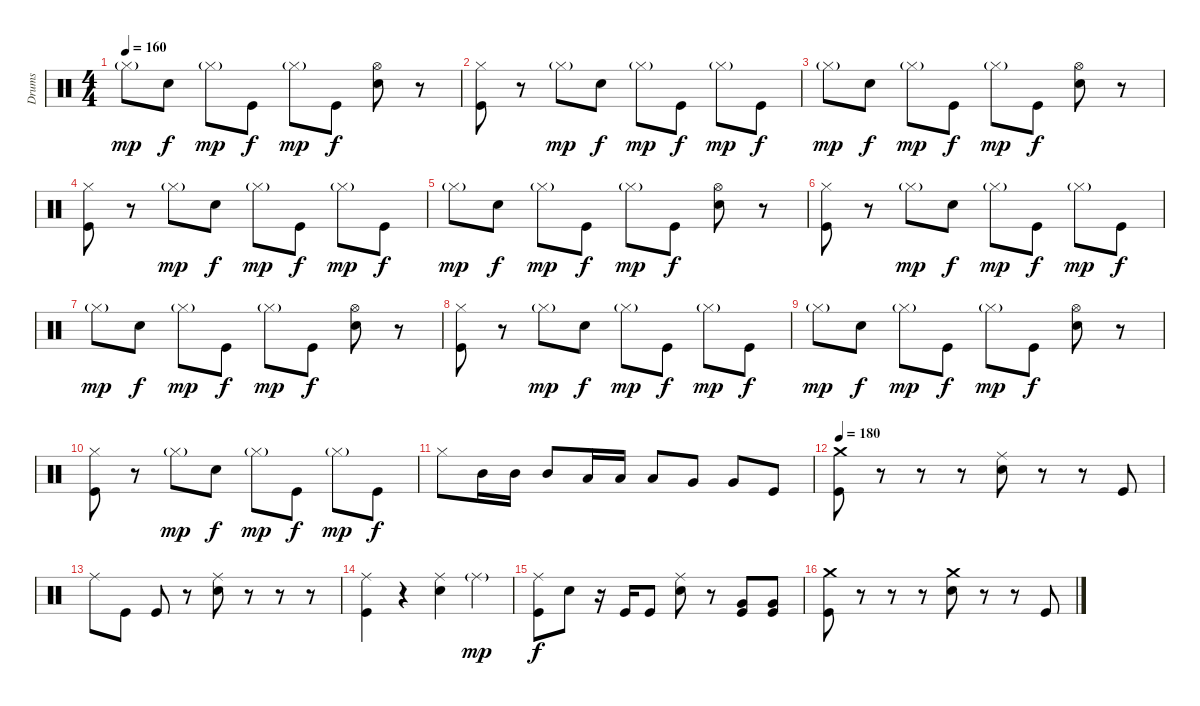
\track ("Drums" "Drums") {instrument percussion}
\staff {score}
\articulation defaults
\ts (4 4)
\tempo 160
\clef neutral
\ks c "Hi-Hat (closed)"{g}.8{dy mp} "Electric Snare (hit)".8{dy f} "Hi-Hat (closed)"{g}.8{dy mp} "Kick (hit)".8{dy f} "Hi-Hat (closed)"{g}.8{dy mp} "Kick (hit)".8{dy f}
("Hi-Hat (open)" "Electric Snare (hit)").8 r.8 |
("Hi-Hat (closed)" "Kick (hit)").8 r.8 "Hi-Hat (closed)"{g}.8{dy mp} "Electric Snare (hit)".8{dy f} "Hi-Hat (closed)"{g}.8{dy mp} "Kick (hit)".8{dy f} "Hi-Hat (closed)"{g}.8{dy mp} "Kick (hit)".8{dy f} |
"Hi-Hat (closed)"{g}.8{dy mp} "Electric Snare (hit)".8{dy f} "Hi-Hat (closed)"{g}.8{dy mp} "Kick (hit)".8{dy f} "Hi-Hat (closed)"{g}.8{dy mp} "Kick (hit)".8{dy f} ("Hi-Hat (open)" "Electric Snare (hit)").8 r.8 |
("Hi-Hat (closed)" "Kick (hit)").8 r.8 "Hi-Hat (closed)"{g}.8{dy mp} "Electric Snare (hit)".8{dy f} "Hi-Hat (closed)"{g}.8{dy mp} "Kick (hit)".8{dy f} "Hi-Hat (closed)"{g}.8{dy mp} "Kick (hit)".8{dy f} |
"Hi-Hat (closed)"{g}.8{dy mp} "Electric Snare (hit)".8{dy f} "Hi-Hat (closed)"{g}.8{dy mp} "Kick (hit)".8{dy f} "Hi-Hat (closed)"{g}.8{dy mp} "Kick (hit)".8{dy f} ("Hi-Hat (open)" "Electric Snare (hit)").8 r.8 |
("Hi-Hat (closed)" "Kick (hit)").8 r.8 "Hi-Hat (closed)"{g}.8{dy mp} "Electric Snare (hit)".8{dy f} "Hi-Hat (closed)"{g}.8{dy mp} "Kick (hit)".8{dy f} "Hi-Hat (closed)"{g}.8{dy mp} "Kick (hit)".8{dy f} |
"Hi-Hat (closed)"{g}.8{dy mp} "Electric Snare (hit)".8{dy f} "Hi-Hat (closed)"{g}.8{dy mp} "Kick (hit)".8{dy f} "Hi-Hat (closed)"{g}.8{dy mp} "Kick (hit)".8{dy f} ("Hi-Hat (open)" "Electric Snare (hit)").8 r.8 |
("Hi-Hat (closed)" "Kick (hit)").8 r.8 "Hi-Hat (closed)"{g}.8{dy mp} "Electric Snare (hit)".8{dy f} "Hi-Hat (closed)"{g}.8{dy mp} "Kick (hit)".8{dy f} "Hi-Hat (closed)"{g}.8{dy mp} "Kick (hit)".8{dy f} |
"Hi-Hat (closed)"{g}.8{dy mp} "Electric Snare (hit)".8{dy f} "Hi-Hat (closed)"{g}.8{dy mp} "Kick (hit)".8{dy f} "Hi-Hat (closed)"{g}.8{dy mp} "Kick (hit)".8{dy f} ("Hi-Hat (open)" "Electric Snare (hit)").8 r.8 |
("Hi-Hat (closed)" "Kick (hit)").8 r.8 "Hi-Hat (closed)"{g}.8{dy mp} "Electric Snare (hit)".8{dy f} "Hi-Hat (closed)"{g}.8{dy mp} "Kick (hit)".8{dy f} "Hi-Hat (closed)"{g}.8{dy mp} "Kick (hit)".8{dy f} |
"Hi-Hat (closed)".8 "Mid Tom (hit)".16 "Mid Tom (hit)".16 "Mid Tom (hit)".8 "Low Tom (hit)".16 "Low Tom (hit)".16 "Low Tom (hit)".8 "Very Low Tom (hit)".8 "Very Low Tom (hit)".8 "Kick (hit)".8 |
\tempo 180
("Crash medium (hit)" "Kick (hit)").8 r.8 r.8 r.8 ("Ride (middle)" "Electric Snare (hit)").8 r.8 r.8 "Kick (hit)".8 |
"Ride (middle)".8 "Kick (hit)".8 "Kick (hit)".8 r.8 ("Ride (middle)" "Electric Snare (hit)").8 r.8 r.8 r.8 |
("Ride (middle)" "Kick (hit)").4 r.4 ("Ride (middle)" "Electric Snare (hit)").4 "Ride (middle)"{g}.4{dy mp} |
("Ride (middle)" "Kick (hit)").8{dy f} "Electric Snare (hit)".8 r.16 "Kick (hit)".16 "Kick (hit)".8 ("Ride (middle)" "Electric Snare (hit)").8 r.8 ("Very Low Tom (hit)" "Kick (hit)").8 ("Very Low Tom (hit)" "Kick (hit)").8 |
("Crash medium (hit)" "Kick (hit)").8 r.8 r.8 r.8 ("Crash medium (hit)" "Electric Snare (hit)").8 r.8 r.8 "Kick (hit)".8
